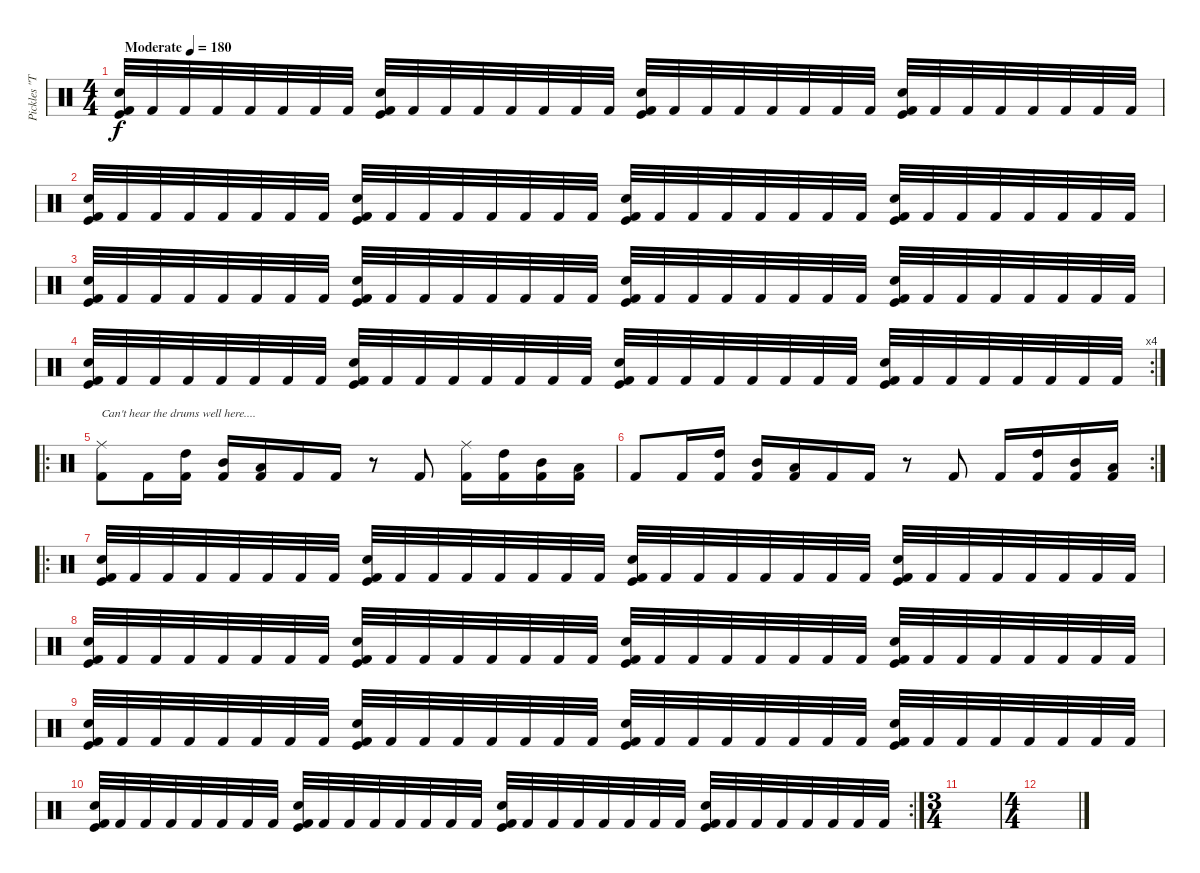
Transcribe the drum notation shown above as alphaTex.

\track ("Pickles \"The Drummer\"" "Pickles \"T") {instrument percussion}
\staff {score}
\articulation defaults
\ts (4 4)
\tempo (180 "Moderate")
\clef neutral
\ks c
("Electric Snare (hit)" "Kick (hit)" "Kick (hit) 2").32{dy f} "Kick (hit) 2".32 "Kick (hit) 2".32 "Kick (hit) 2".32 "Kick (hit) 2".32 "Kick (hit) 2".32 "Kick (hit) 2".32 "Kick (hit) 2".32 ("Electric Snare (hit)" "Kick (hit)" "Kick (hit) 2").32 "Kick (hit) 2".32 "Kick (hit) 2".32 "Kick (hit) 2".32 "Kick (hit) 2".32 "Kick (hit) 2".32 "Kick (hit) 2".32 "Kick (hit) 2".32 ("Electric Snare (hit)" "Kick (hit)" "Kick (hit) 2").32 "Kick (hit) 2".32 "Kick (hit) 2".32 "Kick (hit) 2".32 "Kick (hit) 2".32 "Kick (hit) 2".32 "Kick (hit) 2".32 "Kick (hit) 2".32 ("Electric Snare (hit)" "Kick (hit)" "Kick (hit) 2").32 "Kick (hit) 2".32 "Kick (hit) 2".32 "Kick (hit) 2".32 "Kick (hit) 2".32 "Kick (hit) 2".32 "Kick (hit) 2".32 "Kick (hit) 2".32 |
("Electric Snare (hit)" "Kick (hit)" "Kick (hit) 2").32 "Kick (hit) 2".32 "Kick (hit) 2".32 "Kick (hit) 2".32 "Kick (hit) 2".32 "Kick (hit) 2".32 "Kick (hit) 2".32 "Kick (hit) 2".32 ("Electric Snare (hit)" "Kick (hit)" "Kick (hit) 2").32 "Kick (hit) 2".32 "Kick (hit) 2".32 "Kick (hit) 2".32 "Kick (hit) 2".32 "Kick (hit) 2".32 "Kick (hit) 2".32 "Kick (hit) 2".32 ("Electric Snare (hit)" "Kick (hit)" "Kick (hit) 2").32 "Kick (hit) 2".32 "Kick (hit) 2".32 "Kick (hit) 2".32 "Kick (hit) 2".32 "Kick (hit) 2".32 "Kick (hit) 2".32 "Kick (hit) 2".32 ("Electric Snare (hit)" "Kick (hit)" "Kick (hit) 2").32 "Kick (hit) 2".32 "Kick (hit) 2".32 "Kick (hit) 2".32 "Kick (hit) 2".32 "Kick (hit) 2".32 "Kick (hit) 2".32 "Kick (hit) 2".32 |
("Electric Snare (hit)" "Kick (hit)" "Kick (hit) 2").32 "Kick (hit) 2".32 "Kick (hit) 2".32 "Kick (hit) 2".32 "Kick (hit) 2".32 "Kick (hit) 2".32 "Kick (hit) 2".32 "Kick (hit) 2".32 ("Electric Snare (hit)" "Kick (hit)" "Kick (hit) 2").32 "Kick (hit) 2".32 "Kick (hit) 2".32 "Kick (hit) 2".32 "Kick (hit) 2".32 "Kick (hit) 2".32 "Kick (hit) 2".32 "Kick (hit) 2".32 ("Electric Snare (hit)" "Kick (hit)" "Kick (hit) 2").32 "Kick (hit) 2".32 "Kick (hit) 2".32 "Kick (hit) 2".32 "Kick (hit) 2".32 "Kick (hit) 2".32 "Kick (hit) 2".32 "Kick (hit) 2".32 ("Electric Snare (hit)" "Kick (hit)" "Kick (hit) 2").32 "Kick (hit) 2".32 "Kick (hit) 2".32 "Kick (hit) 2".32 "Kick (hit) 2".32 "Kick (hit) 2".32 "Kick (hit) 2".32 "Kick (hit) 2".32 |
\rc 4
("Electric Snare (hit)" "Kick (hit)" "Kick (hit) 2").32 "Kick (hit) 2".32 "Kick (hit) 2".32 "Kick (hit) 2".32 "Kick (hit) 2".32 "Kick (hit) 2".32 "Kick (hit) 2".32 "Kick (hit) 2".32 ("Electric Snare (hit)" "Kick (hit)" "Kick (hit) 2").32 "Kick (hit) 2".32 "Kick (hit) 2".32 "Kick (hit) 2".32 "Kick (hit) 2".32 "Kick (hit) 2".32 "Kick (hit) 2".32 "Kick (hit) 2".32 ("Electric Snare (hit)" "Kick (hit)" "Kick (hit) 2").32 "Kick (hit) 2".32 "Kick (hit) 2".32 "Kick (hit) 2".32 "Kick (hit) 2".32 "Kick (hit) 2".32 "Kick (hit) 2".32 "Kick (hit) 2".32 ("Electric Snare (hit)" "Kick (hit)" "Kick (hit) 2").32 "Kick (hit) 2".32 "Kick (hit) 2".32 "Kick (hit) 2".32 "Kick (hit) 2".32 "Kick (hit) 2".32 "Kick (hit) 2".32 "Kick (hit) 2".32 |
\ro
("Ride (middle)" "Kick (hit) 2").8{txt "Can't hear the drums well here...."} "Kick (hit) 2".16 ("High Tom (hit)" "Kick (hit) 2").16 ("Mid Tom (hit)" "Kick (hit) 2").16 ("Low Tom (hit)" "Kick (hit) 2").16 "Kick (hit) 2".16 "Kick (hit) 2".16 r.8 "Kick (hit) 2".8 ("Ride (middle)" "Kick (hit) 2").16 ("High Tom (hit)" "Kick (hit) 2").16 ("Mid Tom (hit)" "Kick (hit) 2").16 ("Low Tom (hit)" "Kick (hit) 2").16 |
\rc 2 "Kick (hit) 2".8 "Kick (hit) 2".16
("High Tom (hit)" "Kick (hit) 2").16 ("Mid Tom (hit)" "Kick (hit) 2").16 ("Low Tom (hit)" "Kick (hit) 2").16 "Kick (hit) 2".16 "Kick (hit) 2".16 r.8 "Kick (hit) 2".8 "Kick (hit) 2".16 ("High Tom (hit)" "Kick (hit) 2").16 ("Mid Tom (hit)" "Kick (hit) 2").16 ("Low Tom (hit)" "Kick (hit) 2").16 |
\ro
("Electric Snare (hit)" "Kick (hit)" "Kick (hit) 2").32 "Kick (hit) 2".32 "Kick (hit) 2".32 "Kick (hit) 2".32 "Kick (hit) 2".32 "Kick (hit) 2".32 "Kick (hit) 2".32 "Kick (hit) 2".32 ("Electric Snare (hit)" "Kick (hit)" "Kick (hit) 2").32 "Kick (hit) 2".32 "Kick (hit) 2".32 "Kick (hit) 2".32 "Kick (hit) 2".32 "Kick (hit) 2".32 "Kick (hit) 2".32 "Kick (hit) 2".32 ("Electric Snare (hit)" "Kick (hit)" "Kick (hit) 2").32 "Kick (hit) 2".32 "Kick (hit) 2".32 "Kick (hit) 2".32 "Kick (hit) 2".32 "Kick (hit) 2".32 "Kick (hit) 2".32 "Kick (hit) 2".32 ("Electric Snare (hit)" "Kick (hit)" "Kick (hit) 2").32 "Kick (hit) 2".32 "Kick (hit) 2".32 "Kick (hit) 2".32 "Kick (hit) 2".32 "Kick (hit) 2".32 "Kick (hit) 2".32 "Kick (hit) 2".32 |
("Electric Snare (hit)" "Kick (hit)" "Kick (hit) 2").32 "Kick (hit) 2".32 "Kick (hit) 2".32 "Kick (hit) 2".32 "Kick (hit) 2".32 "Kick (hit) 2".32 "Kick (hit) 2".32 "Kick (hit) 2".32 ("Electric Snare (hit)" "Kick (hit)" "Kick (hit) 2").32 "Kick (hit) 2".32 "Kick (hit) 2".32 "Kick (hit) 2".32 "Kick (hit) 2".32 "Kick (hit) 2".32 "Kick (hit) 2".32 "Kick (hit) 2".32 ("Electric Snare (hit)" "Kick (hit)" "Kick (hit) 2").32 "Kick (hit) 2".32 "Kick (hit) 2".32 "Kick (hit) 2".32 "Kick (hit) 2".32 "Kick (hit) 2".32 "Kick (hit) 2".32 "Kick (hit) 2".32 ("Electric Snare (hit)" "Kick (hit)" "Kick (hit) 2").32 "Kick (hit) 2".32 "Kick (hit) 2".32 "Kick (hit) 2".32 "Kick (hit) 2".32 "Kick (hit) 2".32 "Kick (hit) 2".32 "Kick (hit) 2".32 |
("Electric Snare (hit)" "Kick (hit)" "Kick (hit) 2").32 "Kick (hit) 2".32 "Kick (hit) 2".32 "Kick (hit) 2".32 "Kick (hit) 2".32 "Kick (hit) 2".32 "Kick (hit) 2".32 "Kick (hit) 2".32 ("Electric Snare (hit)" "Kick (hit)" "Kick (hit) 2").32 "Kick (hit) 2".32 "Kick (hit) 2".32 "Kick (hit) 2".32 "Kick (hit) 2".32 "Kick (hit) 2".32 "Kick (hit) 2".32 "Kick (hit) 2".32 ("Electric Snare (hit)" "Kick (hit)" "Kick (hit) 2").32 "Kick (hit) 2".32 "Kick (hit) 2".32 "Kick (hit) 2".32 "Kick (hit) 2".32 "Kick (hit) 2".32 "Kick (hit) 2".32 "Kick (hit) 2".32 ("Electric Snare (hit)" "Kick (hit)" "Kick (hit) 2").32 "Kick (hit) 2".32 "Kick (hit) 2".32 "Kick (hit) 2".32 "Kick (hit) 2".32 "Kick (hit) 2".32 "Kick (hit) 2".32 "Kick (hit) 2".32 |
\rc 2
("Electric Snare (hit)" "Kick (hit)" "Kick (hit) 2").32 "Kick (hit) 2".32 "Kick (hit) 2".32 "Kick (hit) 2".32 "Kick (hit) 2".32 "Kick (hit) 2".32 "Kick (hit) 2".32 "Kick (hit) 2".32 ("Electric Snare (hit)" "Kick (hit)" "Kick (hit) 2").32 "Kick (hit) 2".32 "Kick (hit) 2".32 "Kick (hit) 2".32 "Kick (hit) 2".32 "Kick (hit) 2".32 "Kick (hit) 2".32 "Kick (hit) 2".32 ("Electric Snare (hit)" "Kick (hit)" "Kick (hit) 2").32 "Kick (hit) 2".32 "Kick (hit) 2".32 "Kick (hit) 2".32 "Kick (hit) 2".32 "Kick (hit) 2".32 "Kick (hit) 2".32 "Kick (hit) 2".32 ("Electric Snare (hit)" "Kick (hit)" "Kick (hit) 2").32 "Kick (hit) 2".32 "Kick (hit) 2".32 "Kick (hit) 2".32 "Kick (hit) 2".32 "Kick (hit) 2".32 "Kick (hit) 2".32 "Kick (hit) 2".32 |
\ts (3 4)
|
\ts (4 4)
